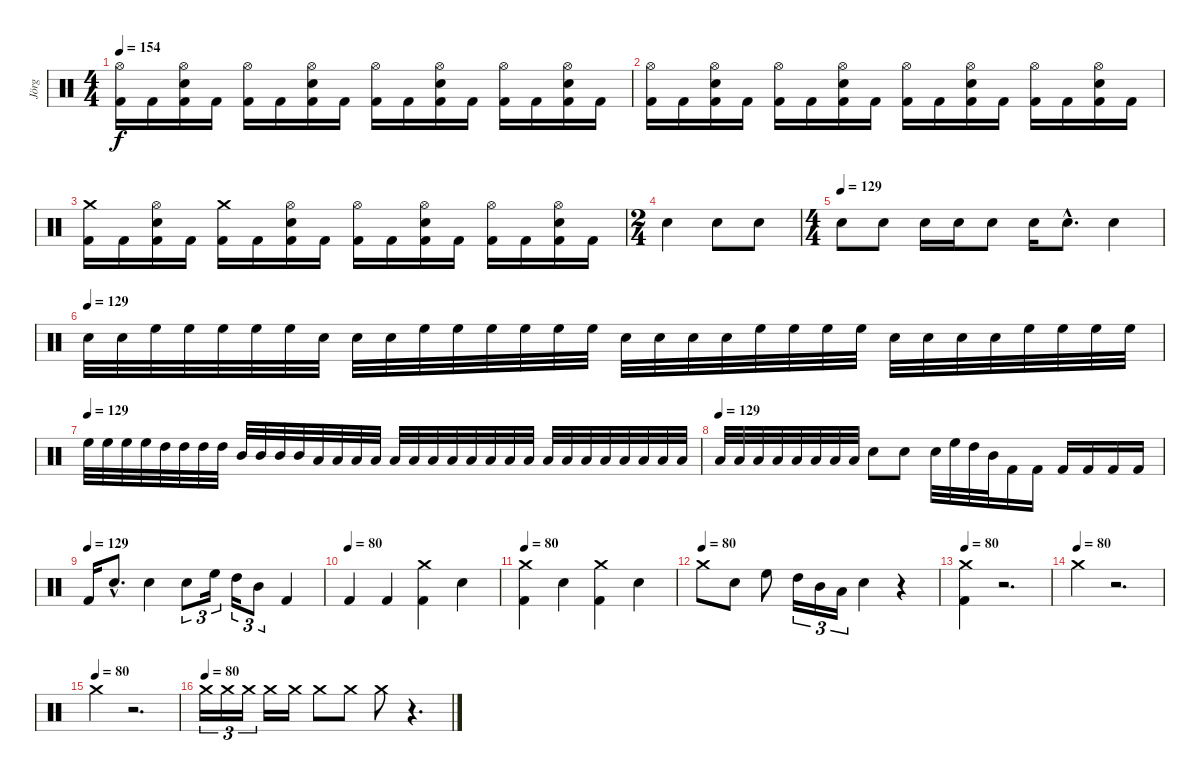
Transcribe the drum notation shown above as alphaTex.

\track ("Jörg" "Jörg") {instrument percussion}
\staff {score}
\articulation defaults
\ts (4 4)
\tempo 154
\clef neutral
\ks c
("Hi-Hat (open)" "Kick (hit) 2").16{dy f} "Kick (hit) 2".16 ("Snare (hit) 2" "Hi-Hat (open)" "Kick (hit) 2").16 "Kick (hit) 2".16 ("Hi-Hat (open)" "Kick (hit) 2").16 "Kick (hit) 2".16 ("Snare (hit) 2" "Hi-Hat (open)" "Kick (hit) 2").16 "Kick (hit) 2".16 ("Hi-Hat (open)" "Kick (hit) 2").16 "Kick (hit) 2".16 ("Snare (hit) 2" "Hi-Hat (open)" "Kick (hit) 2").16 "Kick (hit) 2".16 ("Hi-Hat (open)" "Kick (hit) 2").16 "Kick (hit) 2".16 ("Snare (hit) 2" "Hi-Hat (open)" "Kick (hit) 2").16 "Kick (hit) 2".16 |
("Hi-Hat (open)" "Kick (hit) 2").16 "Kick (hit) 2".16 ("Snare (hit) 2" "Hi-Hat (open)" "Kick (hit) 2").16 "Kick (hit) 2".16 ("Hi-Hat (open)" "Kick (hit) 2").16 "Kick (hit) 2".16 ("Snare (hit) 2" "Hi-Hat (open)" "Kick (hit) 2").16 "Kick (hit) 2".16 ("Hi-Hat (open)" "Kick (hit) 2").16 "Kick (hit) 2".16 ("Snare (hit) 2" "Hi-Hat (open)" "Kick (hit) 2").16 "Kick (hit) 2".16 ("Hi-Hat (open)" "Kick (hit) 2").16 "Kick (hit) 2".16 ("Snare (hit) 2" "Hi-Hat (open)" "Kick (hit) 2").16 "Kick (hit) 2".16 |
("Crash medium (hit)" "Kick (hit) 2").16 "Kick (hit) 2".16 ("Snare (hit) 2" "Hi-Hat (open)" "Kick (hit) 2").16 "Kick (hit) 2".16 ("Crash medium (hit)" "Kick (hit) 2").16 "Kick (hit) 2".16 ("Snare (hit) 2" "Hi-Hat (open)" "Kick (hit) 2").16 "Kick (hit) 2".16 ("Hi-Hat (open)" "Kick (hit) 2").16 "Kick (hit) 2".16 ("Snare (hit) 2" "Hi-Hat (open)" "Kick (hit) 2").16 "Kick (hit) 2".16 ("Hi-Hat (open)" "Kick (hit) 2").16 "Kick (hit) 2".16 ("Snare (hit) 2" "Hi-Hat (open)" "Kick (hit) 2").16 "Kick (hit) 2".16 |
\ts (2 4)
"Snare (hit) 2".4 "Snare (hit) 2".8 "Snare (hit) 2".8 |
\ts (4 4)
\tempo (129)
"Snare (hit) 2".8 "Snare (hit) 2".8 "Snare (hit) 2".16 "Snare (hit) 2".16 "Snare (hit) 2".8 "Snare (hit) 2".16 "Snare (hit) 2"{hac}.8{d} "Snare (hit) 2".4 |
\tempo (129)
"Snare (hit) 2".32 "Snare (hit) 2".32 "High Floor Tom (hit)".32 "High Floor Tom (hit)".32 "High Floor Tom (hit)".32 "High Floor Tom (hit)".32 "High Floor Tom (hit)".32 "Snare (hit) 2".32 "Snare (hit) 2".32 "Snare (hit) 2".32 "High Floor Tom (hit)".32 "High Floor Tom (hit)".32 "High Floor Tom (hit)".32 "High Floor Tom (hit)".32 "High Floor Tom (hit)".32 "High Floor Tom (hit)".32 "Snare (hit) 2".32 "Snare (hit) 2".32 "Snare (hit) 2".32 "Snare (hit) 2".32 "High Floor Tom (hit)".32 "High Floor Tom (hit)".32 "High Floor Tom (hit)".32 "High Floor Tom (hit)".32 "Snare (hit) 2".32 "Snare (hit) 2".32 "Snare (hit) 2".32 "Snare (hit) 2".32 "High Floor Tom (hit)".32 "High Floor Tom (hit)".32 "High Floor Tom (hit)".32 "High Floor Tom (hit)".32 |
\tempo (129)
"High Floor Tom (hit)".32 "High Floor Tom (hit)".32 "High Floor Tom (hit)".32 "High Floor Tom (hit)".32 "High Tom (hit)".32 "High Tom (hit)".32 "High Tom (hit)".32 "High Tom (hit)".32 "Mid Tom (hit)".32 "Mid Tom (hit)".32 "Mid Tom (hit)".32 "Mid Tom (hit)".32 "Low Tom (hit)".32 "Low Tom (hit)".32 "Low Tom (hit)".32 "Low Tom (hit)".32 "Low Tom (hit)".32 "Low Tom (hit)".32 "Low Tom (hit)".32 "Low Tom (hit)".32 "Low Tom (hit)".32 "Low Tom (hit)".32 "Low Tom (hit)".32 "Low Tom (hit)".32 "Low Tom (hit)".32 "Low Tom (hit)".32 "Low Tom (hit)".32 "Low Tom (hit)".32 "Low Tom (hit)".32 "Low Tom (hit)".32 "Low Tom (hit)".32 "Low Tom (hit)".32 |
\tempo (129)
"Low Tom (hit)".32 "Low Tom (hit)".32 "Low Tom (hit)".32 "Low Tom (hit)".32 "Low Tom (hit)".32 "Low Tom (hit)".32 "Low Tom (hit)".32 "Low Tom (hit)".32 "Snare (hit) 2".8 "Snare (hit) 2".8 "Snare (hit) 2".32 "High Floor Tom (hit)".32 "High Tom (hit)".32 "Mid Tom (hit)".32 "Kick (hit) 2".16 "Kick (hit) 2".16 "Kick (hit) 2".16 "Kick (hit) 2".16 "Kick (hit) 2".16 "Kick (hit) 2".16 |
\tempo (129)
"Kick (hit) 2".16 "Snare (hit) 2"{hac}.8{d} "Snare (hit) 2".4 "Snare (hit) 2".8{tu (3 2)} "High Floor Tom (hit)".16{tu (3 2)} "High Tom (hit)".16{tu (3 2)} "Mid Tom (hit)".8{tu (3 2)} "Kick (hit) 2".4 |
\tempo (80)
"Kick (hit) 2".4 "Kick (hit) 2".4 ("Kick (hit) 2" "Crash medium (hit)").4 "Snare (hit) 2".4 |
\tempo 80
("Kick (hit) 2" "Crash medium (hit)").4 "Snare (hit) 2".4 ("Kick (hit) 2" "Crash medium (hit)").4 "Snare (hit) 2".4 |
\tempo (80)
"Crash medium (hit)".8 "Snare (hit) 2".8 "High Floor Tom (hit)".8 "High Tom (hit)".16{tu (3 2)} "Mid Tom (hit)".16{tu (3 2)} "Low Tom (hit)".16{tu (3 2)} "Snare (hit) 2".4 r.4 |
\tempo 80
("Crash medium (hit)" "Kick (hit) 2").4 r.2{d} |
\tempo (80)
"Crash medium (hit)".4 r.2{d} |
\tempo (80)
"Crash medium (hit)".4 r.2{d} |
\tempo (80)
"Crash medium (hit)".16{tu (3 2)} "Crash medium (hit)".16{tu (3 2)} "Crash medium (hit)".16{tu (3 2)} "Crash medium (hit)".16 "Crash medium (hit)".16 "Crash medium (hit)".8 "Crash medium (hit)".8 "Crash medium (hit)".8 r.4{d}
